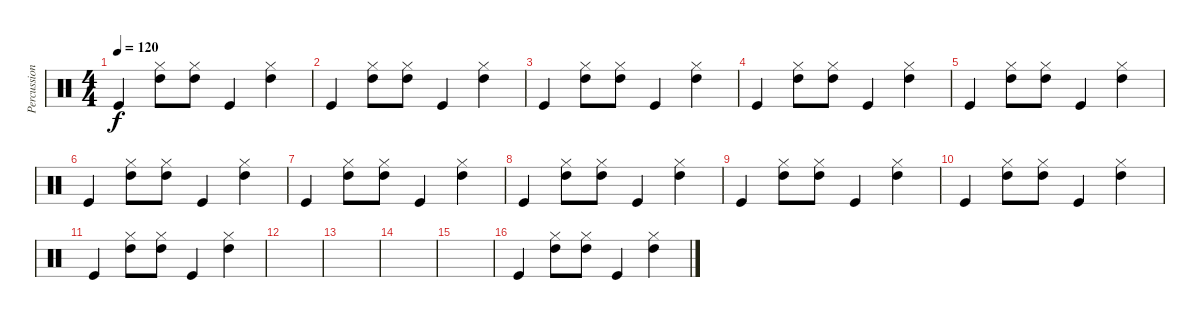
\track ("Percussion" "Percussion") {instrument percussion}
\staff {score}
\articulation defaults
\ts (4 4)
\tempo 120
\clef neutral
\ks c "Kick (hit)".4{dy f}
("Hi-Hat (closed)" "High Tom (hit)").8 ("Hi-Hat (closed)" "High Tom (hit)").8 "Kick (hit)".4 ("Hi-Hat (closed)" "High Tom (hit)").4 |
"Kick (hit)".4 ("Hi-Hat (closed)" "High Tom (hit)").8 ("Hi-Hat (closed)" "High Tom (hit)").8 "Kick (hit)".4 ("Hi-Hat (closed)" "High Tom (hit)").4 |
"Kick (hit)".4 ("Hi-Hat (closed)" "High Tom (hit)").8 ("Hi-Hat (closed)" "High Tom (hit)").8 "Kick (hit)".4 ("Hi-Hat (closed)" "High Tom (hit)").4 |
"Kick (hit)".4 ("Hi-Hat (closed)" "High Tom (hit)").8 ("Hi-Hat (closed)" "High Tom (hit)").8 "Kick (hit)".4 ("Hi-Hat (closed)" "High Tom (hit)").4 |
"Kick (hit)".4 ("Hi-Hat (closed)" "High Tom (hit)").8 ("Hi-Hat (closed)" "High Tom (hit)").8 "Kick (hit)".4 ("Hi-Hat (closed)" "High Tom (hit)").4 |
"Kick (hit)".4 ("Hi-Hat (closed)" "High Tom (hit)").8 ("Hi-Hat (closed)" "High Tom (hit)").8 "Kick (hit)".4 ("Hi-Hat (closed)" "High Tom (hit)").4 |
"Kick (hit)".4 ("Hi-Hat (closed)" "High Tom (hit)").8 ("Hi-Hat (closed)" "High Tom (hit)").8 "Kick (hit)".4 ("Hi-Hat (closed)" "High Tom (hit)").4 |
"Kick (hit)".4 ("Hi-Hat (closed)" "High Tom (hit)").8 ("Hi-Hat (closed)" "High Tom (hit)").8 "Kick (hit)".4 ("Hi-Hat (closed)" "High Tom (hit)").4 |
"Kick (hit)".4 ("Hi-Hat (closed)" "High Tom (hit)").8 ("Hi-Hat (closed)" "High Tom (hit)").8 "Kick (hit)".4 ("Hi-Hat (closed)" "High Tom (hit)").4 |
"Kick (hit)".4 ("Hi-Hat (closed)" "High Tom (hit)").8 ("Hi-Hat (closed)" "High Tom (hit)").8 "Kick (hit)".4 ("Hi-Hat (closed)" "High Tom (hit)").4 |
"Kick (hit)".4 ("Hi-Hat (closed)" "High Tom (hit)").8 ("Hi-Hat (closed)" "High Tom (hit)").8 "Kick (hit)".4 ("Hi-Hat (closed)" "High Tom (hit)").4 |
|
|
|
|
"Kick (hit)".4 ("Hi-Hat (closed)" "High Tom (hit)").8 ("Hi-Hat (closed)" "High Tom (hit)").8 "Kick (hit)".4 ("Hi-Hat (closed)" "High Tom (hit)").4
